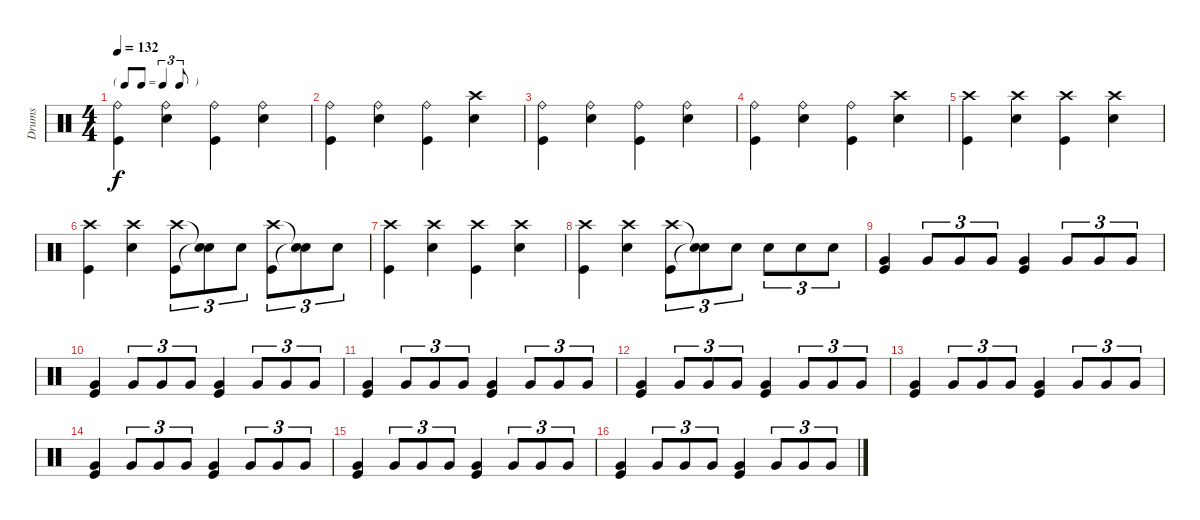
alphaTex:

\track ("Drums" "Drums") {instrument percussion}
\staff {score}
\articulation defaults
\ts (4 4)
\tf triplet8th
\tempo 132
\clef neutral
\ks c
("Ride (bell)" "Kick (hit)").4{dy f} ("Ride (bell)" "Electric Snare (hit)").4 ("Ride (bell)" "Kick (hit)").4 ("Ride (bell)" "Electric Snare (hit)").4 |
("Ride (bell)" "Kick (hit)").4 ("Ride (bell)" "Electric Snare (hit)").4 ("Ride (bell)" "Kick (hit)").4 ("Crash high (hit)" "Electric Snare (hit)").4 |
("Ride (bell)" "Kick (hit)").4 ("Ride (bell)" "Electric Snare (hit)").4 ("Ride (bell)" "Kick (hit)").4 ("Ride (bell)" "Electric Snare (hit)").4 |
("Ride (bell)" "Kick (hit)").4 ("Ride (bell)" "Electric Snare (hit)").4 ("Ride (bell)" "Kick (hit)").4 ("Crash high (hit)" "Electric Snare (hit)").4 |
("Crash high (hit)" "Kick (hit)").4 ("Crash high (hit)" "Electric Snare (hit)").4 ("Crash high (hit)" "Kick (hit)").4 ("Crash high (hit)" "Electric Snare (hit)").4 |
("Crash high (hit)" "Kick (hit)").4 ("Crash high (hit)" "Electric Snare (hit)").4 ("Crash high (hit)" "Kick (hit)").8{tu (3 2)} ("Snare (hit)"{t} "Snare (hit)"{t}).8{tu (3 2)} "Electric Snare (hit)".8{tu (3 2)} ("Crash high (hit)" "Kick (hit)").8{tu (3 2)} ("Snare (hit)"{t} "Snare (hit)"{t}).8{tu (3 2)} "Electric Snare (hit)".8{tu (3 2)} |
("Crash high (hit)" "Kick (hit)").4 ("Crash high (hit)" "Electric Snare (hit)").4 ("Crash high (hit)" "Kick (hit)").4 ("Crash high (hit)" "Electric Snare (hit)").4 |
("Crash high (hit)" "Kick (hit)").4 ("Crash high (hit)" "Electric Snare (hit)").4 ("Crash high (hit)" "Kick (hit)").8{tu (3 2)} ("Snare (hit)"{t} "Snare (hit)"{t}).8{tu (3 2)} "Electric Snare (hit)".8{tu (3 2)} "Electric Snare (hit)".8{tu (3 2)} "Electric Snare (hit)".8{tu (3 2)} "Electric Snare (hit)".8{tu (3 2)} |
("Very Low Tom (hit)" "Kick (hit)").4 "Very Low Tom (hit)".8{tu (3 2)} "Very Low Tom (hit)".8{tu (3 2)} "Very Low Tom (hit)".8{tu (3 2)} ("Very Low Tom (hit)" "Kick (hit)").4 "Very Low Tom (hit)".8{tu (3 2)} "Very Low Tom (hit)".8{tu (3 2)} "Very Low Tom (hit)".8{tu (3 2)} |
("Very Low Tom (hit)" "Kick (hit)").4 "Very Low Tom (hit)".8{tu (3 2)} "Very Low Tom (hit)".8{tu (3 2)} "Very Low Tom (hit)".8{tu (3 2)} ("Very Low Tom (hit)" "Kick (hit)").4 "Very Low Tom (hit)".8{tu (3 2)} "Very Low Tom (hit)".8{tu (3 2)} "Very Low Tom (hit)".8{tu (3 2)} |
("Very Low Tom (hit)" "Kick (hit)").4 "Very Low Tom (hit)".8{tu (3 2)} "Very Low Tom (hit)".8{tu (3 2)} "Very Low Tom (hit)".8{tu (3 2)} ("Very Low Tom (hit)" "Kick (hit)").4 "Very Low Tom (hit)".8{tu (3 2)} "Very Low Tom (hit)".8{tu (3 2)} "Very Low Tom (hit)".8{tu (3 2)} |
("Very Low Tom (hit)" "Kick (hit)").4 "Very Low Tom (hit)".8{tu (3 2)} "Very Low Tom (hit)".8{tu (3 2)} "Very Low Tom (hit)".8{tu (3 2)} ("Very Low Tom (hit)" "Kick (hit)").4 "Very Low Tom (hit)".8{tu (3 2)} "Very Low Tom (hit)".8{tu (3 2)} "Very Low Tom (hit)".8{tu (3 2)} |
("Very Low Tom (hit)" "Kick (hit)").4 "Very Low Tom (hit)".8{tu (3 2)} "Very Low Tom (hit)".8{tu (3 2)} "Very Low Tom (hit)".8{tu (3 2)} ("Very Low Tom (hit)" "Kick (hit)").4 "Very Low Tom (hit)".8{tu (3 2)} "Very Low Tom (hit)".8{tu (3 2)} "Very Low Tom (hit)".8{tu (3 2)} |
("Very Low Tom (hit)" "Kick (hit)").4 "Very Low Tom (hit)".8{tu (3 2)} "Very Low Tom (hit)".8{tu (3 2)} "Very Low Tom (hit)".8{tu (3 2)} ("Very Low Tom (hit)" "Kick (hit)").4 "Very Low Tom (hit)".8{tu (3 2)} "Very Low Tom (hit)".8{tu (3 2)} "Very Low Tom (hit)".8{tu (3 2)} |
("Very Low Tom (hit)" "Kick (hit)").4 "Very Low Tom (hit)".8{tu (3 2)} "Very Low Tom (hit)".8{tu (3 2)} "Very Low Tom (hit)".8{tu (3 2)} ("Very Low Tom (hit)" "Kick (hit)").4 "Very Low Tom (hit)".8{tu (3 2)} "Very Low Tom (hit)".8{tu (3 2)} "Very Low Tom (hit)".8{tu (3 2)} |
("Very Low Tom (hit)" "Kick (hit)").4 "Very Low Tom (hit)".8{tu (3 2)} "Very Low Tom (hit)".8{tu (3 2)} "Very Low Tom (hit)".8{tu (3 2)} ("Very Low Tom (hit)" "Kick (hit)").4 "Very Low Tom (hit)".8{tu (3 2)} "Very Low Tom (hit)".8{tu (3 2)} "Very Low Tom (hit)".8{tu (3 2)}
